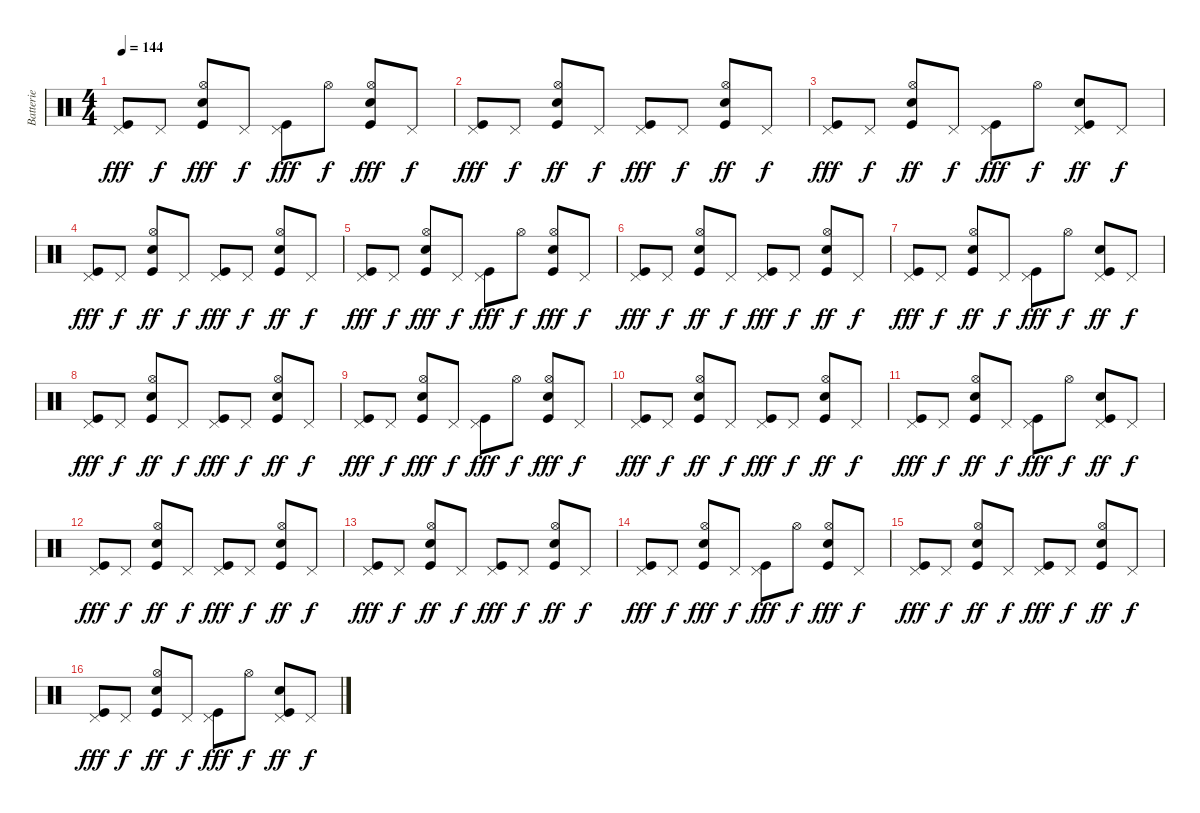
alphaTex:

\track ("Batterie" "Batterie") {instrument percussion}
\staff {score}
\articulation defaults
\ts (4 4)
\tempo 144
\clef neutral
\ks c
("Pedal Hi-Hat (hit)" "Kick (hit)").8{dy fff} "Pedal Hi-Hat (hit)".8{dy f} ("Hi-Hat (open)" "Kick (hit)" "Electric Snare (hit)").8{dy fff} "Pedal Hi-Hat (hit)".8{dy f} ("Pedal Hi-Hat (hit)" "Kick (hit)").8{dy fff} "Hi-Hat (open)".8{dy f} ("Hi-Hat (open)" "Kick (hit)" "Electric Snare (hit)").8{dy fff} "Pedal Hi-Hat (hit)".8{dy f} |
("Pedal Hi-Hat (hit)" "Kick (hit)").8{dy fff} "Pedal Hi-Hat (hit)".8{dy f} ("Hi-Hat (open)" "Kick (hit)" "Electric Snare (hit)").8{dy ff} "Pedal Hi-Hat (hit)".8{dy f} ("Pedal Hi-Hat (hit)" "Kick (hit)").8{dy fff} "Pedal Hi-Hat (hit)".8{dy f} ("Hi-Hat (open)" "Kick (hit)" "Electric Snare (hit)").8{dy ff} "Pedal Hi-Hat (hit)".8{dy f} |
("Pedal Hi-Hat (hit)" "Kick (hit)").8{dy fff} "Pedal Hi-Hat (hit)".8{dy f} ("Hi-Hat (open)" "Kick (hit)" "Electric Snare (hit)").8{dy ff} "Pedal Hi-Hat (hit)".8{dy f} ("Pedal Hi-Hat (hit)" "Kick (hit)").8{dy fff} "Hi-Hat (open)".8{dy f} ("Pedal Hi-Hat (hit)" "Kick (hit)" "Electric Snare (hit)").8{dy ff} "Pedal Hi-Hat (hit)".8{dy f} |
("Pedal Hi-Hat (hit)" "Kick (hit)").8{dy fff} "Pedal Hi-Hat (hit)".8{dy f} ("Hi-Hat (open)" "Kick (hit)" "Electric Snare (hit)").8{dy ff} "Pedal Hi-Hat (hit)".8{dy f} ("Pedal Hi-Hat (hit)" "Kick (hit)").8{dy fff} "Pedal Hi-Hat (hit)".8{dy f} ("Hi-Hat (open)" "Kick (hit)" "Electric Snare (hit)").8{dy ff} "Pedal Hi-Hat (hit)".8{dy f} |
("Pedal Hi-Hat (hit)" "Kick (hit)").8{dy fff} "Pedal Hi-Hat (hit)".8{dy f} ("Hi-Hat (open)" "Kick (hit)" "Electric Snare (hit)").8{dy fff} "Pedal Hi-Hat (hit)".8{dy f} ("Pedal Hi-Hat (hit)" "Kick (hit)").8{dy fff} "Hi-Hat (open)".8{dy f} ("Hi-Hat (open)" "Kick (hit)" "Electric Snare (hit)").8{dy fff} "Pedal Hi-Hat (hit)".8{dy f} |
("Pedal Hi-Hat (hit)" "Kick (hit)").8{dy fff} "Pedal Hi-Hat (hit)".8{dy f} ("Hi-Hat (open)" "Kick (hit)" "Electric Snare (hit)").8{dy ff} "Pedal Hi-Hat (hit)".8{dy f} ("Pedal Hi-Hat (hit)" "Kick (hit)").8{dy fff} "Pedal Hi-Hat (hit)".8{dy f} ("Hi-Hat (open)" "Kick (hit)" "Electric Snare (hit)").8{dy ff} "Pedal Hi-Hat (hit)".8{dy f} |
("Pedal Hi-Hat (hit)" "Kick (hit)").8{dy fff} "Pedal Hi-Hat (hit)".8{dy f} ("Hi-Hat (open)" "Kick (hit)" "Electric Snare (hit)").8{dy ff} "Pedal Hi-Hat (hit)".8{dy f} ("Pedal Hi-Hat (hit)" "Kick (hit)").8{dy fff} "Hi-Hat (open)".8{dy f} ("Pedal Hi-Hat (hit)" "Kick (hit)" "Electric Snare (hit)").8{dy ff} "Pedal Hi-Hat (hit)".8{dy f} |
("Pedal Hi-Hat (hit)" "Kick (hit)").8{dy fff} "Pedal Hi-Hat (hit)".8{dy f} ("Hi-Hat (open)" "Kick (hit)" "Electric Snare (hit)").8{dy ff} "Pedal Hi-Hat (hit)".8{dy f} ("Pedal Hi-Hat (hit)" "Kick (hit)").8{dy fff} "Pedal Hi-Hat (hit)".8{dy f} ("Hi-Hat (open)" "Kick (hit)" "Electric Snare (hit)").8{dy ff} "Pedal Hi-Hat (hit)".8{dy f} |
("Pedal Hi-Hat (hit)" "Kick (hit)").8{dy fff} "Pedal Hi-Hat (hit)".8{dy f} ("Hi-Hat (open)" "Kick (hit)" "Electric Snare (hit)").8{dy fff} "Pedal Hi-Hat (hit)".8{dy f} ("Pedal Hi-Hat (hit)" "Kick (hit)").8{dy fff} "Hi-Hat (open)".8{dy f} ("Hi-Hat (open)" "Kick (hit)" "Electric Snare (hit)").8{dy fff} "Pedal Hi-Hat (hit)".8{dy f} |
("Pedal Hi-Hat (hit)" "Kick (hit)").8{dy fff} "Pedal Hi-Hat (hit)".8{dy f} ("Hi-Hat (open)" "Kick (hit)" "Electric Snare (hit)").8{dy ff} "Pedal Hi-Hat (hit)".8{dy f} ("Pedal Hi-Hat (hit)" "Kick (hit)").8{dy fff} "Pedal Hi-Hat (hit)".8{dy f} ("Hi-Hat (open)" "Kick (hit)" "Electric Snare (hit)").8{dy ff} "Pedal Hi-Hat (hit)".8{dy f} |
("Pedal Hi-Hat (hit)" "Kick (hit)").8{dy fff} "Pedal Hi-Hat (hit)".8{dy f} ("Hi-Hat (open)" "Kick (hit)" "Electric Snare (hit)").8{dy ff} "Pedal Hi-Hat (hit)".8{dy f} ("Pedal Hi-Hat (hit)" "Kick (hit)").8{dy fff} "Hi-Hat (open)".8{dy f} ("Pedal Hi-Hat (hit)" "Kick (hit)" "Electric Snare (hit)").8{dy ff} "Pedal Hi-Hat (hit)".8{dy f} |
("Pedal Hi-Hat (hit)" "Kick (hit)").8{dy fff} "Pedal Hi-Hat (hit)".8{dy f} ("Hi-Hat (open)" "Kick (hit)" "Electric Snare (hit)").8{dy ff} "Pedal Hi-Hat (hit)".8{dy f} ("Pedal Hi-Hat (hit)" "Kick (hit)").8{dy fff} "Pedal Hi-Hat (hit)".8{dy f} ("Hi-Hat (open)" "Kick (hit)" "Electric Snare (hit)").8{dy ff} "Pedal Hi-Hat (hit)".8{dy f} |
("Pedal Hi-Hat (hit)" "Kick (hit)").8{dy fff} "Pedal Hi-Hat (hit)".8{dy f} ("Hi-Hat (open)" "Kick (hit)" "Electric Snare (hit)").8{dy ff} "Pedal Hi-Hat (hit)".8{dy f} ("Pedal Hi-Hat (hit)" "Kick (hit)").8{dy fff} "Pedal Hi-Hat (hit)".8{dy f} ("Hi-Hat (open)" "Kick (hit)" "Electric Snare (hit)").8{dy ff} "Pedal Hi-Hat (hit)".8{dy f} |
("Pedal Hi-Hat (hit)" "Kick (hit)").8{dy fff} "Pedal Hi-Hat (hit)".8{dy f} ("Hi-Hat (open)" "Kick (hit)" "Electric Snare (hit)").8{dy fff} "Pedal Hi-Hat (hit)".8{dy f} ("Pedal Hi-Hat (hit)" "Kick (hit)").8{dy fff} "Hi-Hat (open)".8{dy f} ("Hi-Hat (open)" "Kick (hit)" "Electric Snare (hit)").8{dy fff} "Pedal Hi-Hat (hit)".8{dy f} |
("Pedal Hi-Hat (hit)" "Kick (hit)").8{dy fff} "Pedal Hi-Hat (hit)".8{dy f} ("Hi-Hat (open)" "Kick (hit)" "Electric Snare (hit)").8{dy ff} "Pedal Hi-Hat (hit)".8{dy f} ("Pedal Hi-Hat (hit)" "Kick (hit)").8{dy fff} "Pedal Hi-Hat (hit)".8{dy f} ("Hi-Hat (open)" "Kick (hit)" "Electric Snare (hit)").8{dy ff} "Pedal Hi-Hat (hit)".8{dy f} |
("Pedal Hi-Hat (hit)" "Kick (hit)").8{dy fff} "Pedal Hi-Hat (hit)".8{dy f} ("Hi-Hat (open)" "Kick (hit)" "Electric Snare (hit)").8{dy ff} "Pedal Hi-Hat (hit)".8{dy f} ("Pedal Hi-Hat (hit)" "Kick (hit)").8{dy fff} "Hi-Hat (open)".8{dy f} ("Pedal Hi-Hat (hit)" "Kick (hit)" "Electric Snare (hit)").8{dy ff} "Pedal Hi-Hat (hit)".8{dy f}
